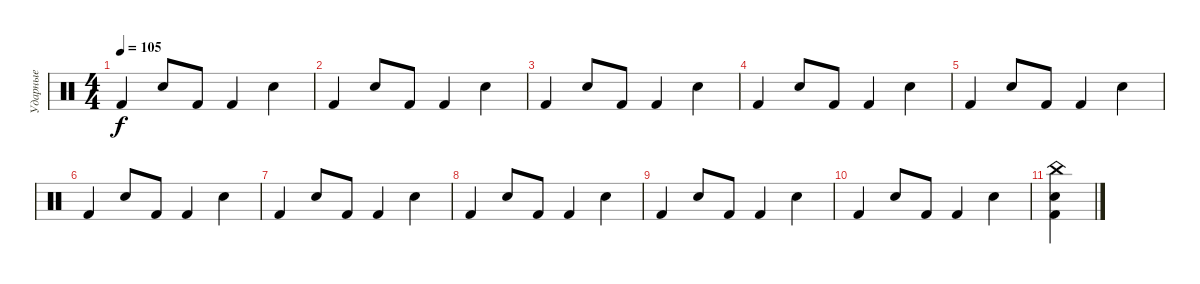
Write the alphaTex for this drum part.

\track ("Ударные" "Ударные") {instrument percussion}
\staff {score}
\articulation defaults
\ts (4 4)
\tempo 105
\clef neutral
\ks c "Kick (hit) 2".4{dy f} "Snare (hit) 2".8 "Kick (hit) 2".8 "Kick (hit) 2".4 "Snare (hit) 2".4
|
"Kick (hit) 2".4 "Snare (hit) 2".8 "Kick (hit) 2".8 "Kick (hit) 2".4 "Snare (hit) 2".4 |
"Kick (hit) 2".4 "Snare (hit) 2".8 "Kick (hit) 2".8 "Kick (hit) 2".4 "Snare (hit) 2".4 |
"Kick (hit) 2".4 "Snare (hit) 2".8 "Kick (hit) 2".8 "Kick (hit) 2".4 "Snare (hit) 2".4 |
"Kick (hit) 2".4 "Snare (hit) 2".8 "Kick (hit) 2".8 "Kick (hit) 2".4 "Snare (hit) 2".4 |
"Kick (hit) 2".4 "Snare (hit) 2".8 "Kick (hit) 2".8 "Kick (hit) 2".4 "Snare (hit) 2".4 |
"Kick (hit) 2".4 "Snare (hit) 2".8 "Kick (hit) 2".8 "Kick (hit) 2".4 "Snare (hit) 2".4 |
"Kick (hit) 2".4 "Snare (hit) 2".8 "Kick (hit) 2".8 "Kick (hit) 2".4 "Snare (hit) 2".4 |
"Kick (hit) 2".4 "Snare (hit) 2".8 "Kick (hit) 2".8 "Kick (hit) 2".4 "Snare (hit) 2".4 |
"Kick (hit) 2".4 "Snare (hit) 2".8 "Kick (hit) 2".8 "Kick (hit) 2".4 "Snare (hit) 2".4 |
("Kick (hit) 2" "Snare (hit) 2" "China (hit)").4
